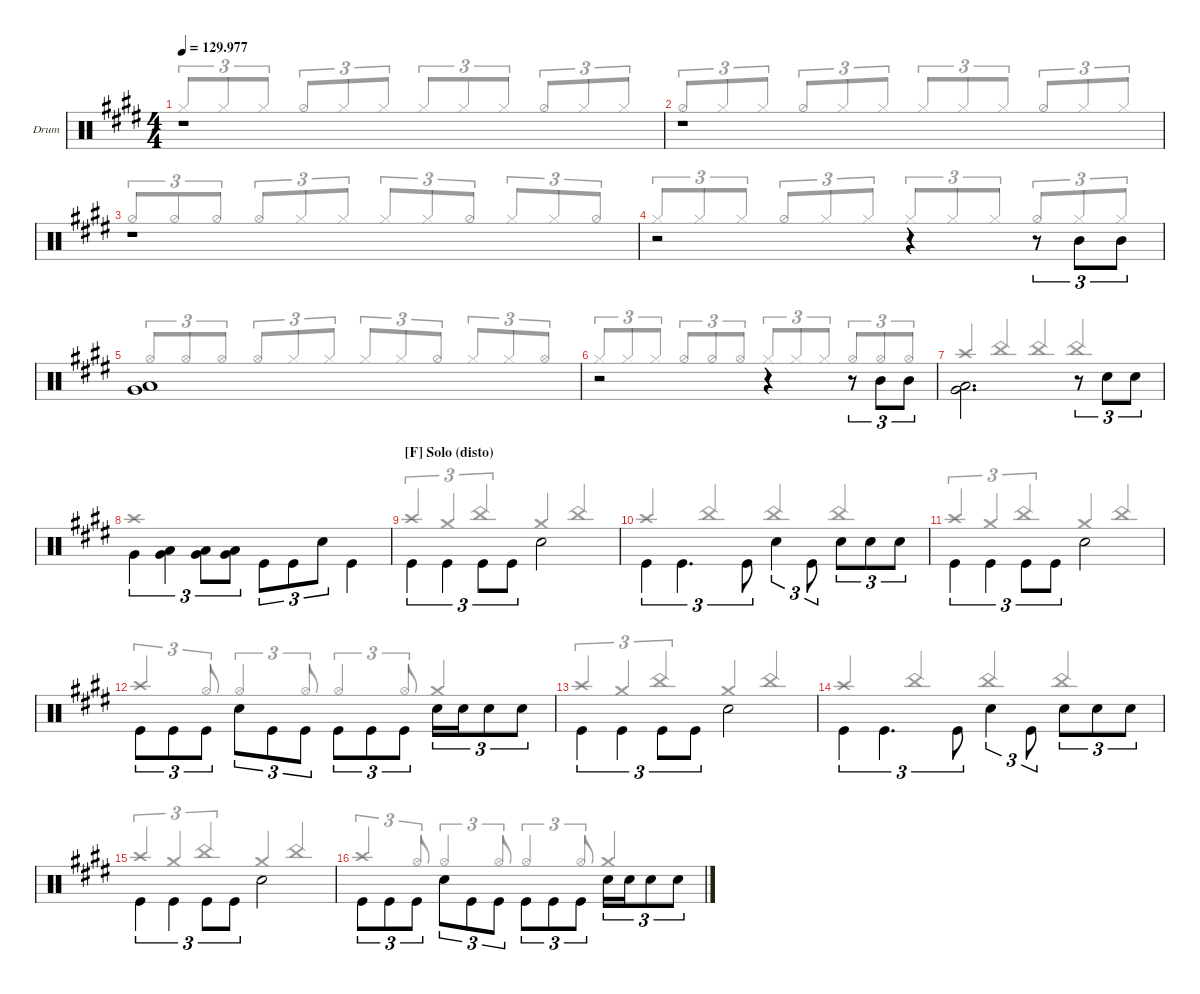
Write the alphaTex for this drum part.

\defaultSystemsLayout 4
\hideDynamics
\bracketExtendMode nobrackets
\firstSystemTrackNameOrientation horizontal
\track ("BATTERIE" "Drum") {defaultSystemsLayout 4 instrument percussion}
\staff {score}
\articulation defaults
\voice
\ts (4 4)
\tempo
129.977
\accidentals auto
\clef neutral
\ottava regular
\simile none
\ks e
r.1{dy mf beam Down} |
r.1{beam Down} |
r.1{beam Down} |
r.2{beam Down} r.4{beam Down} r.8{tu (3 2) beam Down} "Mid Tom (hit)"{acc forcenatural}.8{tu (3 2) beam Down} "Mid Tom (hit)"{acc forcenatural}.8{tu (3 2) beam Down} |
("Very Low Tom (hit)"{acc forcenatural} "Low Tom (hit)"{acc forcenatural}).1{beam Down} |
r.2{beam Down} r.4{beam Down} r.8{tu (3 2) beam Down} "Mid Tom (hit)"{acc forcenatural}.8{tu (3 2) beam Down} "Mid Tom (hit)"{acc forcenatural}.8{tu (3 2) beam Down} |
("Very Low Tom (hit)"{acc forcenatural} "Low Tom (hit)"{acc forcenatural}).2{d beam Down} r.8{tu (3 2) beam Down} "Snare (hit) 2"{acc forcenatural}.8{tu (3 2) beam Down} "Snare (hit) 2"{acc forcenatural}.8{tu (3 2) beam Down} |
"Very Low Tom (hit)"{acc forcenatural}.4{tu (3 2) beam Down} ("Low Tom (hit)"{acc forcenatural} "Very Low Tom (hit)"{acc forcenatural}).4{tu (3 2) beam Down} ("Low Tom (hit)"{acc forcenatural} "Very Low Tom (hit)"{acc forcenatural}).8{tu (3 2) beam Down} ("Low Tom (hit)"{acc forcenatural} "Very Low Tom (hit)"{acc forcenatural}).8{tu (3 2) beam Down} "Kick (hit)"{acc forcenatural}.8{tu (3 2) beam Down} "Kick (hit)"{acc forcenatural}.8{tu (3 2) beam Down} "Snare (hit) 2"{acc forcenatural}.8{tu (3 2) beam Down} "Kick (hit)"{acc forcenatural}.4{beam Down} |
\section ("F" "Solo (disto)")
"Kick (hit)"{acc forcenatural}.4{tu (3 2) beam Down} "Kick (hit)"{acc forcenatural}.4{tu (3 2) beam Down} "Kick (hit)"{acc forcenatural}.8{tu (3 2) beam Down} "Kick (hit)"{acc forcenatural}.8{tu (3 2) beam Down} "Snare (hit) 2"{acc forcenatural}.2{beam Down} |
"Kick (hit)"{acc forcenatural}.4{tu (3 2) beam Down} "Kick (hit)"{acc forcenatural}.4{d tu (3 2) beam Down} "Kick (hit)"{acc forcenatural}.8{tu (3 2) beam Down} "Snare (hit) 2"{acc forcenatural}.4{tu (3 2) beam Down} "Kick (hit)"{acc forcenatural}.8{tu (3 2) beam Down} "Snare (hit) 2"{acc forcenatural}.8{tu (3 2) beam Down} "Snare (hit) 2"{acc forcenatural}.8{tu (3 2) beam Down} "Snare (hit) 2"{acc forcenatural}.8{tu (3 2) beam Down} |
"Kick (hit)"{acc forcenatural}.4{tu (3 2) beam Down} "Kick (hit)"{acc forcenatural}.4{tu (3 2) beam Down} "Kick (hit)"{acc forcenatural}.8{tu (3 2) beam Down} "Kick (hit)"{acc forcenatural}.8{tu (3 2) beam Down} "Snare (hit) 2"{acc forcenatural}.2{beam Down} |
"Kick (hit)"{acc forcenatural}.8{tu (3 2) beam Down} "Kick (hit)"{acc forcenatural}.8{tu (3 2) beam Down} "Kick (hit)"{acc forcenatural}.8{tu (3 2) beam Down} "Snare (hit) 2"{acc forcenatural}.8{tu (3 2) beam Down} "Kick (hit)"{acc forcenatural}.8{tu (3 2) beam Down} "Kick (hit)"{acc forcenatural}.8{tu (3 2) beam Down} "Kick (hit)"{acc forcenatural}.8{tu (3 2) beam Down} "Kick (hit)"{acc forcenatural}.8{tu (3 2) beam Down} "Kick (hit)"{acc forcenatural}.8{tu (3 2) beam Down} "Snare (hit) 2"{acc forcenatural}.16{tu (3 2) beam Down} "Snare (hit) 2"{acc forcenatural}.16{tu (3 2) beam Down} "Snare (hit) 2"{acc forcenatural}.8{tu (3 2) beam Down} "Snare (hit) 2"{acc forcenatural}.8{tu (3 2) beam Down} |
"Kick (hit)"{acc forcenatural}.4{tu (3 2) beam Down} "Kick (hit)"{acc forcenatural}.4{tu (3 2) beam Down} "Kick (hit)"{acc forcenatural}.8{tu (3 2) beam Down} "Kick (hit)"{acc forcenatural}.8{tu (3 2) beam Down} "Snare (hit) 2"{acc forcenatural}.2{beam Down} |
"Kick (hit)"{acc forcenatural}.4{tu (3 2) beam Down} "Kick (hit)"{acc forcenatural}.4{d tu (3 2) beam Down} "Kick (hit)"{acc forcenatural}.8{tu (3 2) beam Down} "Snare (hit) 2"{acc forcenatural}.4{tu (3 2) beam Down} "Kick (hit)"{acc forcenatural}.8{tu (3 2) beam Down} "Snare (hit) 2"{acc forcenatural}.8{tu (3 2) beam Down} "Snare (hit) 2"{acc forcenatural}.8{tu (3 2) beam Down} "Snare (hit) 2"{acc forcenatural}.8{tu (3 2) beam Down} |
"Kick (hit)"{acc forcenatural}.4{tu (3 2) beam Down} "Kick (hit)"{acc forcenatural}.4{tu (3 2) beam Down} "Kick (hit)"{acc forcenatural}.8{tu (3 2) beam Down} "Kick (hit)"{acc forcenatural}.8{tu (3 2) beam Down} "Snare (hit) 2"{acc forcenatural}.2{beam Down} |
"Kick (hit)"{acc forcenatural}.8{tu (3 2) beam Down} "Kick (hit)"{acc forcenatural}.8{tu (3 2) beam Down} "Kick (hit)"{acc forcenatural}.8{tu (3 2) beam Down} "Snare (hit) 2"{acc forcenatural}.8{tu (3 2) beam Down} "Kick (hit)"{acc forcenatural}.8{tu (3 2) beam Down} "Kick (hit)"{acc forcenatural}.8{tu (3 2) beam Down} "Kick (hit)"{acc forcenatural}.8{tu (3 2) beam Down} "Kick (hit)"{acc forcenatural}.8{tu (3 2) beam Down} "Kick (hit)"{acc forcenatural}.8{tu (3 2) beam Down} "Snare (hit) 2"{acc forcenatural}.16{tu (3 2) beam Down} "Snare (hit) 2"{acc forcenatural}.16{tu (3 2) beam Down} "Snare (hit) 2"{acc forcenatural}.8{tu (3 2) beam Down} "Snare (hit) 2"{acc forcenatural}.8{tu (3 2) beam Down}
\voice
\clef neutral
\ottava regular
\simile none
\ks e "Hi-Hat (closed)"{acc forcenatural}.8{tu (3 2) dy mf beam Up} "Hi-Hat (closed)"{acc forcenatural}.8{tu (3 2) beam Up} "Hi-Hat (closed)"{acc forcenatural}.8{tu (3 2) beam Up} "Hi-Hat (half)"{acc forcenatural}.8{tu (3 2) beam Up} "Hi-Hat (closed)"{acc forcenatural}.8{tu (3 2) beam Up} "Hi-Hat (closed)"{acc forcenatural}.8{tu (3 2) beam Up} "Hi-Hat (closed)"{acc forcenatural}.8{tu (3 2) beam Up} "Hi-Hat (closed)"{acc forcenatural}.8{tu (3 2) beam Up} "Hi-Hat (closed)"{acc forcenatural}.8{tu (3 2) beam Up} "Hi-Hat (half)"{acc forcenatural}.8{tu (3 2) beam Up} "Hi-Hat (closed)"{acc forcenatural}.8{tu (3 2) beam Up} "Hi-Hat (closed)"{acc forcenatural}.8{tu (3 2) beam Up}
|
"Hi-Hat (half)"{acc forcenatural}.8{tu (3 2) beam Up} "Hi-Hat (closed)"{acc forcenatural}.8{tu (3 2) beam Up} "Hi-Hat (closed)"{acc forcenatural}.8{tu (3 2) beam Up} "Hi-Hat (half)"{acc forcenatural}.8{tu (3 2) beam Up} "Hi-Hat (closed)"{acc forcenatural}.8{tu (3 2) beam Up} "Hi-Hat (closed)"{acc forcenatural}.8{tu (3 2) beam Up} "Hi-Hat (closed)"{acc forcenatural}.8{tu (3 2) beam Up} "Hi-Hat (closed)"{acc forcenatural}.8{tu (3 2) beam Up} "Hi-Hat (closed)"{acc forcenatural}.8{tu (3 2) beam Up} "Hi-Hat (half)"{acc forcenatural}.8{tu (3 2) beam Up} "Hi-Hat (closed)"{acc forcenatural}.8{tu (3 2) beam Up} "Hi-Hat (closed)"{acc forcenatural}.8{tu (3 2) beam Up} |
"Hi-Hat (half)"{acc forcenatural}.8{tu (3 2) beam Up} "Hi-Hat (half)"{acc forcenatural}.8{tu (3 2) beam Up} "Hi-Hat (half)"{acc forcenatural}.8{tu (3 2) beam Up} "Hi-Hat (open)"{acc forcenatural}.8{tu (3 2) beam Up} "Hi-Hat (closed)"{acc forcenatural}.8{tu (3 2) beam Up} "Hi-Hat (closed)"{acc forcenatural}.8{tu (3 2) beam Up} "Hi-Hat (closed)"{acc forcenatural}.8{tu (3 2) beam Up} "Hi-Hat (closed)"{acc forcenatural}.8{tu (3 2) beam Up} "Hi-Hat (half)"{acc forcenatural}.8{tu (3 2) beam Up} "Hi-Hat (closed)"{acc forcenatural}.8{tu (3 2) beam Up} "Hi-Hat (closed)"{acc forcenatural}.8{tu (3 2) beam Up} "Hi-Hat (half)"{acc forcenatural}.8{tu (3 2) beam Up} |
"Hi-Hat (closed)"{acc forcenatural}.8{tu (3 2) beam Up} "Hi-Hat (closed)"{acc forcenatural}.8{tu (3 2) beam Up} "Hi-Hat (closed)"{acc forcenatural}.8{tu (3 2) beam Up} "Hi-Hat (half)"{acc forcenatural}.8{tu (3 2) beam Up} "Hi-Hat (closed)"{acc forcenatural}.8{tu (3 2) beam Up} "Hi-Hat (closed)"{acc forcenatural}.8{tu (3 2) beam Up} "Hi-Hat (closed)"{acc forcenatural}.8{tu (3 2) beam Up} "Hi-Hat (closed)"{acc forcenatural}.8{tu (3 2) beam Up} "Hi-Hat (closed)"{acc forcenatural}.8{tu (3 2) beam Up} "Hi-Hat (half)"{acc forcenatural}.8{tu (3 2) beam Up} "Hi-Hat (closed)"{acc forcenatural}.8{tu (3 2) beam Up} "Hi-Hat (closed)"{acc forcenatural}.8{tu (3 2) beam Up} |
"Hi-Hat (open)"{acc forcenatural}.8{tu (3 2) beam Up} "Hi-Hat (open)"{acc forcenatural}.8{tu (3 2) beam Up} "Hi-Hat (open)"{acc forcenatural}.8{tu (3 2) beam Up} "Hi-Hat (open)"{acc forcenatural}.8{tu (3 2) beam Up} "Hi-Hat (closed)"{acc forcenatural}.8{tu (3 2) beam Up} "Hi-Hat (closed)"{acc forcenatural}.8{tu (3 2) beam Up} "Hi-Hat (closed)"{acc forcenatural}.8{tu (3 2) beam Up} "Hi-Hat (closed)"{acc forcenatural}.8{tu (3 2) beam Up} "Hi-Hat (half)"{acc forcenatural}.8{tu (3 2) beam Up} "Hi-Hat (closed)"{acc forcenatural}.8{tu (3 2) beam Up} "Hi-Hat (closed)"{acc forcenatural}.8{tu (3 2) beam Up} "Hi-Hat (open)"{acc forcenatural}.8{tu (3 2) beam Up} |
"Hi-Hat (closed)"{acc forcenatural}.8{tu (3 2) beam Up} "Hi-Hat (closed)"{acc forcenatural}.8{tu (3 2) beam Up} "Hi-Hat (closed)"{acc forcenatural}.8{tu (3 2) beam Up} "Hi-Hat (half)"{acc forcenatural}.8{tu (3 2) beam Up} "Hi-Hat (half)"{acc forcenatural}.8{tu (3 2) beam Up} "Hi-Hat (open)"{acc forcenatural}.8{tu (3 2) beam Up} "Hi-Hat (closed)"{acc forcenatural}.8{tu (3 2) beam Up} "Hi-Hat (closed)"{acc forcenatural}.8{tu (3 2) beam Up} "Hi-Hat (closed)"{acc forcenatural}.8{tu (3 2) beam Up} "Hi-Hat (open)"{acc forcenatural}.8{tu (3 2) beam Up} "Hi-Hat (open)"{acc forcenatural}.8{tu (3 2) beam Up} "Hi-Hat (open)"{acc forcenatural}.8{tu (3 2) beam Up} |
"Crash high (hit)"{acc forcenatural}.4{beam Up} "China (hit)"{acc forcenatural}.4{beam Up} "China (hit)"{acc forcenatural}.4{beam Up} "China (hit)"{acc forcenatural}.4{beam Up} |
"Crash high (hit)"{acc forcenatural}.1{beam Up} |
"Crash high (hit)"{acc forcenatural}.4{tu (3 2) beam Up} "Crash medium (hit)"{acc forcenatural}.4{tu (3 2) beam Up} "China (hit)"{acc forcenatural}.4{tu (3 2) beam Up} "Crash medium (hit)"{acc forcenatural}.4{beam Up} "China (hit)"{acc forcenatural}.4{beam Up} |
"Crash high (hit)"{acc forcenatural}.4{beam Up} "China (hit)"{acc forcenatural}.4{beam Up} "China (hit)"{acc forcenatural}.4{beam Up} "China (hit)"{acc forcenatural}.4{beam Up} |
"Crash high (hit)"{acc forcenatural}.4{tu (3 2) beam Up} "Crash medium (hit)"{acc forcenatural}.4{tu (3 2) beam Up} "China (hit)"{acc forcenatural}.4{tu (3 2) beam Up} "Crash medium (hit)"{acc forcenatural}.4{beam Up} "China (hit)"{acc forcenatural}.4{beam Up} |
"Crash high (hit)"{acc forcenatural}.4{tu (3 2) beam Up} "Hi-Hat (open)"{acc forcenatural}.8{tu (3 2) beam Up} "Hi-Hat (open)"{acc forcenatural}.4{tu (3 2) beam Up} "Hi-Hat (open)"{acc forcenatural}.8{tu (3 2) beam Up} "Hi-Hat (open)"{acc forcenatural}.4{tu (3 2) beam Up} "Hi-Hat (open)"{acc forcenatural}.8{tu (3 2) beam Up} "Crash medium (hit)"{acc forcenatural}.4{beam Up} |
"Crash high (hit)"{acc forcenatural}.4{tu (3 2) beam Up} "Crash medium (hit)"{acc forcenatural}.4{tu (3 2) beam Up} "China (hit)"{acc forcenatural}.4{tu (3 2) beam Up} "Crash medium (hit)"{acc forcenatural}.4{beam Up} "China (hit)"{acc forcenatural}.4{beam Up} |
"Crash high (hit)"{acc forcenatural}.4{beam Up} "China (hit)"{acc forcenatural}.4{beam Up} "China (hit)"{acc forcenatural}.4{beam Up} "China (hit)"{acc forcenatural}.4{beam Up} |
"Crash high (hit)"{acc forcenatural}.4{tu (3 2) beam Up} "Crash medium (hit)"{acc forcenatural}.4{tu (3 2) beam Up} "China (hit)"{acc forcenatural}.4{tu (3 2) beam Up} "Crash medium (hit)"{acc forcenatural}.4{beam Up} "China (hit)"{acc forcenatural}.4{beam Up} |
"Crash high (hit)"{acc forcenatural}.4{tu (3 2) beam Up} "Hi-Hat (open)"{acc forcenatural}.8{tu (3 2) beam Up} "Hi-Hat (open)"{acc forcenatural}.4{tu (3 2) beam Up} "Hi-Hat (open)"{acc forcenatural}.8{tu (3 2) beam Up} "Hi-Hat (open)"{acc forcenatural}.4{tu (3 2) beam Up} "Hi-Hat (open)"{acc forcenatural}.8{tu (3 2) beam Up} "Crash medium (hit)"{acc forcenatural}.4{beam Up}
